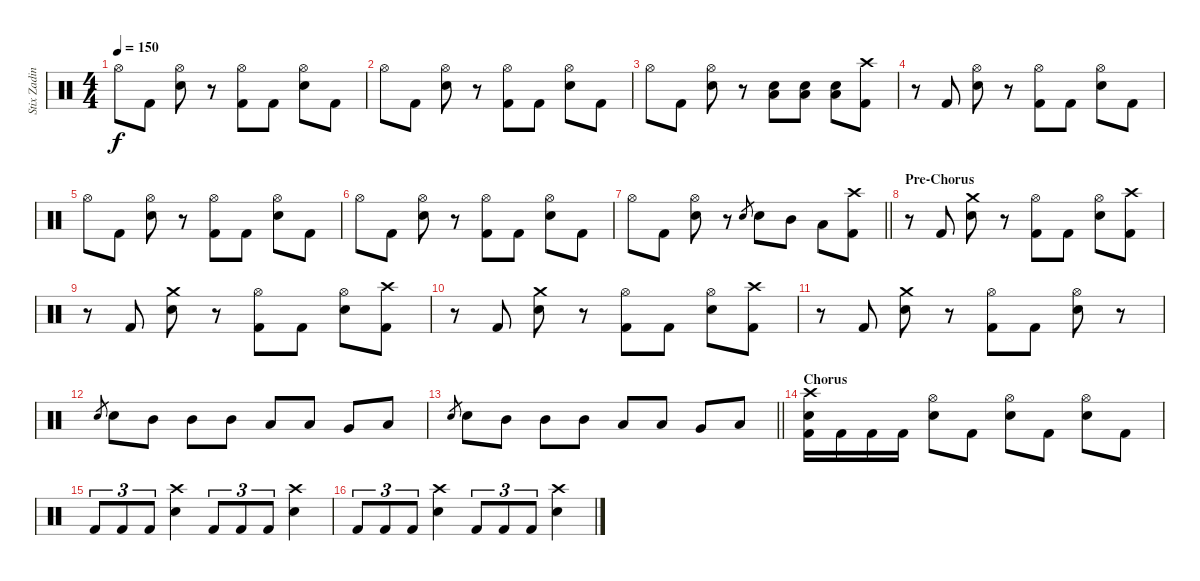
\track ("Stix Zadinia" "Stix Zadin") {instrument percussion}
\staff {score}
\articulation defaults
\ts (4 4)
\tempo 150
\clef neutral
\ks c "Hi-Hat (open)".8{dy f} "Kick (hit) 2".8
("Hi-Hat (open)" "Electric Snare (hit)").8 r.8 ("Hi-Hat (open)" "Kick (hit) 2").8 "Kick (hit) 2".8 ("Hi-Hat (open)" "Electric Snare (hit)").8 "Kick (hit) 2".8 |
"Hi-Hat (open)".8 "Kick (hit) 2".8 ("Hi-Hat (open)" "Electric Snare (hit)").8 r.8 ("Hi-Hat (open)" "Kick (hit) 2").8 "Kick (hit) 2".8 ("Hi-Hat (open)" "Electric Snare (hit)").8 "Kick (hit) 2".8 |
"Hi-Hat (open)".8 "Kick (hit) 2".8 ("Hi-Hat (open)" "Electric Snare (hit)").8 r.8 ("Low Floor Tom (hit)" "Electric Snare (hit)").8 ("Low Floor Tom (hit)" "Electric Snare (hit)").8 ("Low Floor Tom (hit)" "Electric Snare (hit)").8 ("Crash high (hit)" "Kick (hit) 2").8 |
r.8 "Kick (hit) 2".8 ("Hi-Hat (open)" "Electric Snare (hit)").8 r.8 ("Hi-Hat (open)" "Kick (hit) 2").8 "Kick (hit) 2".8 ("Hi-Hat (open)" "Electric Snare (hit)").8 "Kick (hit) 2".8 |
"Hi-Hat (open)".8 "Kick (hit) 2".8 ("Hi-Hat (open)" "Electric Snare (hit)").8 r.8 ("Hi-Hat (open)" "Kick (hit) 2").8 "Kick (hit) 2".8 ("Hi-Hat (open)" "Electric Snare (hit)").8 "Kick (hit) 2".8 |
"Hi-Hat (open)".8 "Kick (hit) 2".8 ("Hi-Hat (open)" "Electric Snare (hit)").8 r.8 ("Hi-Hat (open)" "Kick (hit) 2").8 "Kick (hit) 2".8 ("Hi-Hat (open)" "Electric Snare (hit)").8 "Kick (hit) 2".8 |
\barLineRight lightlight "Hi-Hat (open)".8 "Kick (hit) 2".8
("Hi-Hat (open)" "Electric Snare (hit)").8 r.8 "Electric Snare (hit)".8{gr} "Electric Snare (hit)".8 "Mid Tom (hit)".8 "Low Tom (hit)".8 ("Crash high (hit)" "Kick (hit) 2").8 |
\section ("" "Pre-Chorus")
r.8 "Kick (hit) 2".8 ("Crash medium (hit)" "Electric Snare (hit)").8 r.8 ("Hi-Hat (open)" "Kick (hit) 2").8 "Kick (hit) 2".8 ("Hi-Hat (open)" "Electric Snare (hit)").8 ("Crash high (hit)" "Kick (hit) 2").8 |
r.8 "Kick (hit) 2".8 ("Crash medium (hit)" "Electric Snare (hit)").8 r.8 ("Hi-Hat (open)" "Kick (hit) 2").8 "Kick (hit) 2".8 ("Hi-Hat (open)" "Electric Snare (hit)").8 ("Crash high (hit)" "Kick (hit) 2").8 |
r.8 "Kick (hit) 2".8 ("Crash medium (hit)" "Electric Snare (hit)").8 r.8 ("Hi-Hat (open)" "Kick (hit) 2").8 "Kick (hit) 2".8 ("Hi-Hat (open)" "Electric Snare (hit)").8 ("Crash high (hit)" "Kick (hit) 2").8 |
r.8 "Kick (hit) 2".8 ("Crash medium (hit)" "Electric Snare (hit)").8 r.8 ("Hi-Hat (open)" "Kick (hit) 2").8 "Kick (hit) 2".8 ("Hi-Hat (open)" "Electric Snare (hit)").8 r.8 |
"Electric Snare (hit)".8{gr} "Electric Snare (hit)".8 "Mid Tom (hit)".8 "Mid Tom (hit)".8 "Mid Tom (hit)".8 "Low Tom (hit)".8 "Low Tom (hit)".8 "Very Low Tom (hit)".8 "Low Floor Tom (hit)".8 |
\barLineRight lightlight "Electric Snare (hit)".8{gr} "Electric Snare (hit)".8 "Mid Tom (hit)".8 "Mid Tom (hit)".8 "Mid Tom (hit)".8 "Low Tom (hit)".8 "Low Tom (hit)".8 "Very Low Tom (hit)".8 "Low Floor Tom (hit)".8
|
\section ("" "Chorus")
("Crash high (hit)" "Electric Snare (hit)" "Kick (hit) 2").16 "Kick (hit) 2".16 "Kick (hit) 2".16 "Kick (hit) 2".16 ("Hi-Hat (open)" "Electric Snare (hit)").8 "Kick (hit) 2".8 ("Hi-Hat (open)" "Electric Snare (hit)").8 "Kick (hit) 2".8 ("Hi-Hat (open)" "Electric Snare (hit)").8 "Kick (hit) 2".8 |
"Kick (hit) 2".8{tu (3 2)} "Kick (hit) 2".8{tu (3 2)} "Kick (hit) 2".8{tu (3 2)} ("Crash high (hit)" "Electric Snare (hit)").4 "Kick (hit) 2".8{tu (3 2)} "Kick (hit) 2".8{tu (3 2)} "Kick (hit) 2".8{tu (3 2)} ("Crash high (hit)" "Electric Snare (hit)").4 |
"Kick (hit) 2".8{tu (3 2)} "Kick (hit) 2".8{tu (3 2)} "Kick (hit) 2".8{tu (3 2)} ("Crash high (hit)" "Electric Snare (hit)").4 "Kick (hit) 2".8{tu (3 2)} "Kick (hit) 2".8{tu (3 2)} "Kick (hit) 2".8{tu (3 2)} ("Crash high (hit)" "Electric Snare (hit)").4
